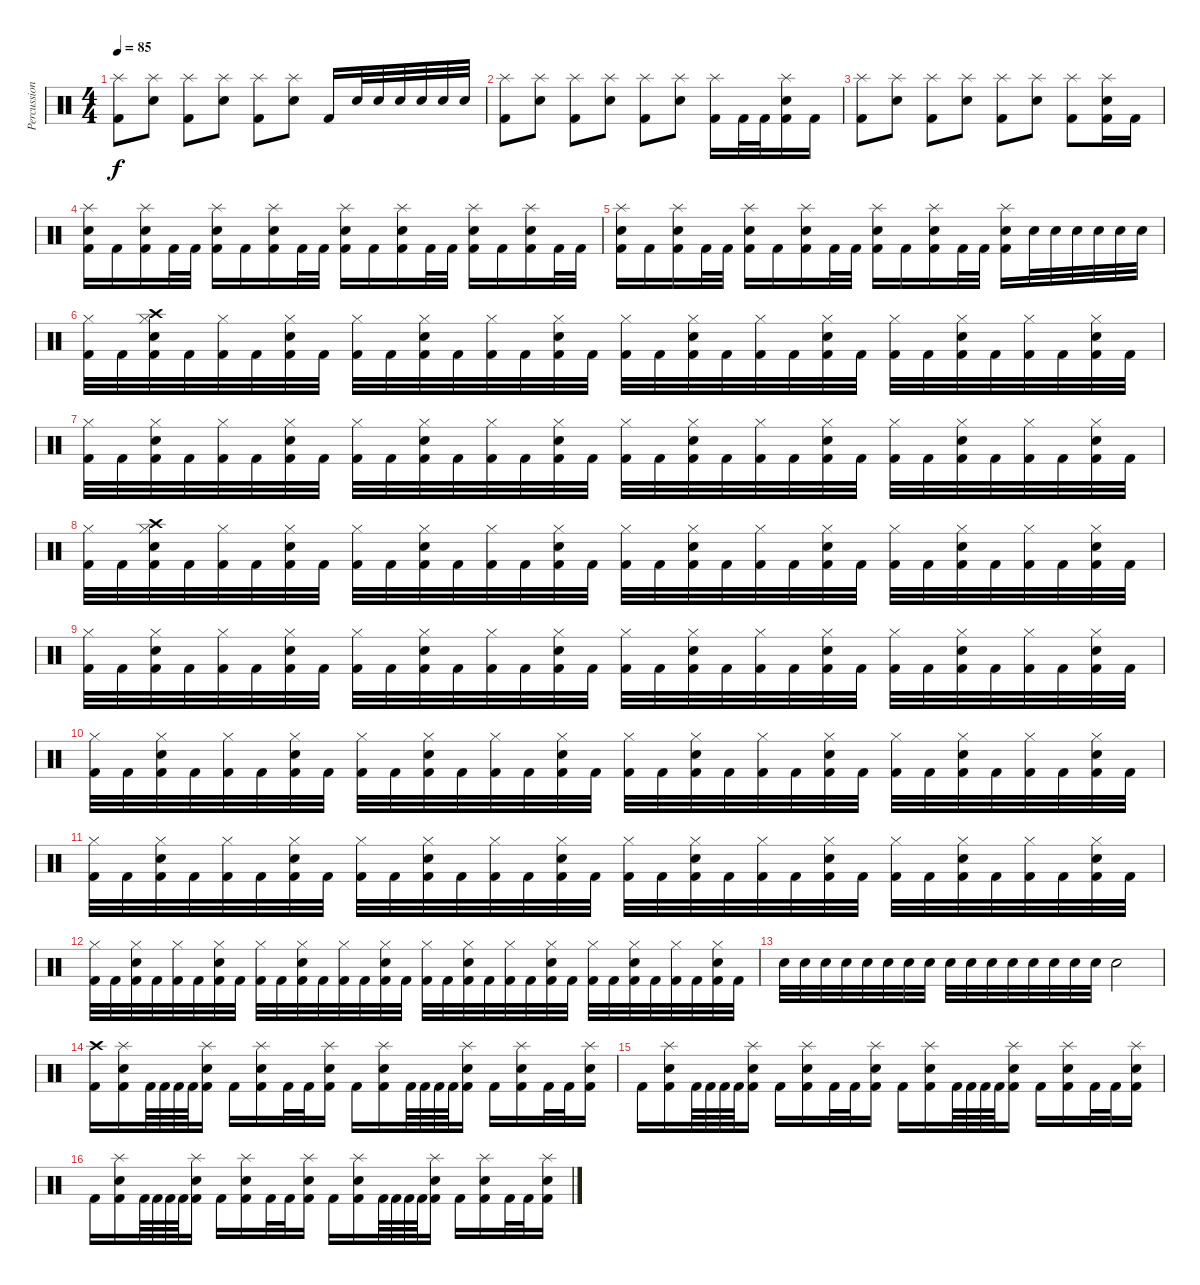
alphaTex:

\track ("Percussion" "Percussion") {instrument percussion}
\staff {score}
\articulation defaults
\ts (4 4)
\tempo 85
\clef neutral
\ks c
("Splash (hit)" "Kick (hit) 2").8{dy f} ("Splash (hit)" "Snare (hit) 2").8 ("Splash (hit)" "Kick (hit) 2").8 ("Splash (hit)" "Snare (hit) 2").8 ("Splash (hit)" "Kick (hit) 2").8 ("Splash (hit)" "Snare (hit) 2").8 "Kick (hit) 2".16 "Snare (hit) 2".32 "Snare (hit) 2".32 "Snare (hit) 2".32 "Snare (hit) 2".32 "Snare (hit) 2".32 "Snare (hit) 2".32 |
("Splash (hit)" "Kick (hit) 2").8 ("Splash (hit)" "Snare (hit) 2").8 ("Splash (hit)" "Kick (hit) 2").8 ("Splash (hit)" "Snare (hit) 2").8 ("Splash (hit)" "Kick (hit) 2").8 ("Splash (hit)" "Snare (hit) 2").8 ("Splash (hit)" "Kick (hit) 2").16 "Kick (hit) 2".32 "Kick (hit) 2".32 ("Splash (hit)" "Snare (hit) 2" "Kick (hit) 2").16 "Kick (hit) 2".16 |
("Splash (hit)" "Kick (hit) 2").8 ("Splash (hit)" "Snare (hit) 2").8 ("Splash (hit)" "Kick (hit) 2").8 ("Splash (hit)" "Snare (hit) 2").8 ("Splash (hit)" "Kick (hit) 2").8 ("Splash (hit)" "Snare (hit) 2").8 ("Splash (hit)" "Kick (hit) 2").8 ("Splash (hit)" "Snare (hit) 2" "Kick (hit) 2").16 "Kick (hit) 2".16 |
("Splash (hit)" "Snare (hit) 2" "Kick (hit) 2").16 "Kick (hit) 2".16 ("Splash (hit)" "Snare (hit) 2" "Kick (hit) 2").16 "Kick (hit) 2".32 "Kick (hit) 2".32 ("Splash (hit)" "Snare (hit) 2" "Kick (hit) 2").16 "Kick (hit) 2".16 ("Splash (hit)" "Snare (hit) 2" "Kick (hit) 2").16 "Kick (hit) 2".32 "Kick (hit) 2".32 ("Splash (hit)" "Snare (hit) 2" "Kick (hit) 2").16 "Kick (hit) 2".16 ("Splash (hit)" "Snare (hit) 2" "Kick (hit) 2").16 "Kick (hit) 2".32 "Kick (hit) 2".32 ("Splash (hit)" "Snare (hit) 2" "Kick (hit) 2").16 "Kick (hit) 2".16 ("Splash (hit)" "Snare (hit) 2" "Kick (hit) 2").16 "Kick (hit) 2".32 "Kick (hit) 2".32 |
("Splash (hit)" "Snare (hit) 2" "Kick (hit) 2").16 "Kick (hit) 2".16 ("Splash (hit)" "Snare (hit) 2" "Kick (hit) 2").16 "Kick (hit) 2".32 "Kick (hit) 2".32 ("Splash (hit)" "Snare (hit) 2" "Kick (hit) 2").16 "Kick (hit) 2".16 ("Splash (hit)" "Snare (hit) 2" "Kick (hit) 2").16 "Kick (hit) 2".32 "Kick (hit) 2".32 ("Splash (hit)" "Snare (hit) 2" "Kick (hit) 2").16 "Kick (hit) 2".16 ("Splash (hit)" "Snare (hit) 2" "Kick (hit) 2").16 "Kick (hit) 2".32 "Kick (hit) 2".32 ("Splash (hit)" "Snare (hit) 2" "Kick (hit) 2").16 "Snare (hit) 2".32 "Snare (hit) 2".32 "Snare (hit) 2".32 "Snare (hit) 2".32 "Snare (hit) 2".32 "Snare (hit) 2".32 |
("Hi-Hat (closed)" "Kick (hit) 2").32 "Kick (hit) 2".32 ("Hi-Hat (closed)" "Snare (hit) 2" "Kick (hit) 2" "Crash high (hit)").32 "Kick (hit) 2".32 ("Hi-Hat (closed)" "Kick (hit) 2").32 "Kick (hit) 2".32 ("Hi-Hat (closed)" "Snare (hit) 2" "Kick (hit) 2").32 "Kick (hit) 2".32 ("Hi-Hat (closed)" "Kick (hit) 2").32 "Kick (hit) 2".32 ("Hi-Hat (closed)" "Snare (hit) 2" "Kick (hit) 2").32 "Kick (hit) 2".32 ("Hi-Hat (closed)" "Kick (hit) 2").32 "Kick (hit) 2".32 ("Hi-Hat (closed)" "Snare (hit) 2" "Kick (hit) 2").32 "Kick (hit) 2".32 ("Hi-Hat (closed)" "Kick (hit) 2").32 "Kick (hit) 2".32 ("Hi-Hat (closed)" "Snare (hit) 2" "Kick (hit) 2").32 "Kick (hit) 2".32 ("Hi-Hat (closed)" "Kick (hit) 2").32 "Kick (hit) 2".32 ("Hi-Hat (closed)" "Snare (hit) 2" "Kick (hit) 2").32 "Kick (hit) 2".32 ("Hi-Hat (closed)" "Kick (hit) 2").32 "Kick (hit) 2".32 ("Hi-Hat (closed)" "Snare (hit) 2" "Kick (hit) 2").32 "Kick (hit) 2".32 ("Hi-Hat (closed)" "Kick (hit) 2").32 "Kick (hit) 2".32 ("Hi-Hat (closed)" "Snare (hit) 2" "Kick (hit) 2").32 "Kick (hit) 2".32 |
("Hi-Hat (closed)" "Kick (hit) 2").32 "Kick (hit) 2".32 ("Hi-Hat (closed)" "Snare (hit) 2" "Kick (hit) 2").32 "Kick (hit) 2".32 ("Hi-Hat (closed)" "Kick (hit) 2").32 "Kick (hit) 2".32 ("Hi-Hat (closed)" "Snare (hit) 2" "Kick (hit) 2").32 "Kick (hit) 2".32 ("Hi-Hat (closed)" "Kick (hit) 2").32 "Kick (hit) 2".32 ("Hi-Hat (closed)" "Snare (hit) 2" "Kick (hit) 2").32 "Kick (hit) 2".32 ("Hi-Hat (closed)" "Kick (hit) 2").32 "Kick (hit) 2".32 ("Hi-Hat (closed)" "Snare (hit) 2" "Kick (hit) 2").32 "Kick (hit) 2".32 ("Hi-Hat (closed)" "Kick (hit) 2").32 "Kick (hit) 2".32 ("Hi-Hat (closed)" "Snare (hit) 2" "Kick (hit) 2").32 "Kick (hit) 2".32 ("Hi-Hat (closed)" "Kick (hit) 2").32 "Kick (hit) 2".32 ("Hi-Hat (closed)" "Snare (hit) 2" "Kick (hit) 2").32 "Kick (hit) 2".32 ("Hi-Hat (closed)" "Kick (hit) 2").32 "Kick (hit) 2".32 ("Hi-Hat (closed)" "Snare (hit) 2" "Kick (hit) 2").32 "Kick (hit) 2".32 ("Hi-Hat (closed)" "Kick (hit) 2").32 "Kick (hit) 2".32 ("Hi-Hat (closed)" "Snare (hit) 2" "Kick (hit) 2").32 "Kick (hit) 2".32 |
("Hi-Hat (closed)" "Kick (hit) 2").32 "Kick (hit) 2".32 ("Hi-Hat (closed)" "Snare (hit) 2" "Kick (hit) 2" "Crash high (hit)").32 "Kick (hit) 2".32 ("Hi-Hat (closed)" "Kick (hit) 2").32 "Kick (hit) 2".32 ("Hi-Hat (closed)" "Snare (hit) 2" "Kick (hit) 2").32 "Kick (hit) 2".32 ("Hi-Hat (closed)" "Kick (hit) 2").32 "Kick (hit) 2".32 ("Hi-Hat (closed)" "Snare (hit) 2" "Kick (hit) 2").32 "Kick (hit) 2".32 ("Hi-Hat (closed)" "Kick (hit) 2").32 "Kick (hit) 2".32 ("Hi-Hat (closed)" "Snare (hit) 2" "Kick (hit) 2").32 "Kick (hit) 2".32 ("Hi-Hat (closed)" "Kick (hit) 2").32 "Kick (hit) 2".32 ("Hi-Hat (closed)" "Snare (hit) 2" "Kick (hit) 2").32 "Kick (hit) 2".32 ("Hi-Hat (closed)" "Kick (hit) 2").32 "Kick (hit) 2".32 ("Hi-Hat (closed)" "Snare (hit) 2" "Kick (hit) 2").32 "Kick (hit) 2".32 ("Hi-Hat (closed)" "Kick (hit) 2").32 "Kick (hit) 2".32 ("Hi-Hat (closed)" "Snare (hit) 2" "Kick (hit) 2").32 "Kick (hit) 2".32 ("Hi-Hat (closed)" "Kick (hit) 2").32 "Kick (hit) 2".32 ("Hi-Hat (closed)" "Snare (hit) 2" "Kick (hit) 2").32 "Kick (hit) 2".32 |
("Hi-Hat (closed)" "Kick (hit) 2").32 "Kick (hit) 2".32 ("Hi-Hat (closed)" "Snare (hit) 2" "Kick (hit) 2").32 "Kick (hit) 2".32 ("Hi-Hat (closed)" "Kick (hit) 2").32 "Kick (hit) 2".32 ("Hi-Hat (closed)" "Snare (hit) 2" "Kick (hit) 2").32 "Kick (hit) 2".32 ("Hi-Hat (closed)" "Kick (hit) 2").32 "Kick (hit) 2".32 ("Hi-Hat (closed)" "Snare (hit) 2" "Kick (hit) 2").32 "Kick (hit) 2".32 ("Hi-Hat (closed)" "Kick (hit) 2").32 "Kick (hit) 2".32 ("Hi-Hat (closed)" "Snare (hit) 2" "Kick (hit) 2").32 "Kick (hit) 2".32 ("Hi-Hat (closed)" "Kick (hit) 2").32 "Kick (hit) 2".32 ("Hi-Hat (closed)" "Snare (hit) 2" "Kick (hit) 2").32 "Kick (hit) 2".32 ("Hi-Hat (closed)" "Kick (hit) 2").32 "Kick (hit) 2".32 ("Hi-Hat (closed)" "Snare (hit) 2" "Kick (hit) 2").32 "Kick (hit) 2".32 ("Hi-Hat (closed)" "Kick (hit) 2").32 "Kick (hit) 2".32 ("Hi-Hat (closed)" "Snare (hit) 2" "Kick (hit) 2").32 "Kick (hit) 2".32 ("Hi-Hat (closed)" "Kick (hit) 2").32 "Kick (hit) 2".32 ("Hi-Hat (closed)" "Snare (hit) 2" "Kick (hit) 2").32 "Kick (hit) 2".32 |
("Hi-Hat (closed)" "Kick (hit) 2").32 "Kick (hit) 2".32 ("Hi-Hat (closed)" "Snare (hit) 2" "Kick (hit) 2").32 "Kick (hit) 2".32 ("Hi-Hat (closed)" "Kick (hit) 2").32 "Kick (hit) 2".32 ("Hi-Hat (closed)" "Snare (hit) 2" "Kick (hit) 2").32 "Kick (hit) 2".32 ("Hi-Hat (closed)" "Kick (hit) 2").32 "Kick (hit) 2".32 ("Hi-Hat (closed)" "Snare (hit) 2" "Kick (hit) 2").32 "Kick (hit) 2".32 ("Hi-Hat (closed)" "Kick (hit) 2").32 "Kick (hit) 2".32 ("Hi-Hat (closed)" "Snare (hit) 2" "Kick (hit) 2").32 "Kick (hit) 2".32 ("Hi-Hat (closed)" "Kick (hit) 2").32 "Kick (hit) 2".32 ("Hi-Hat (closed)" "Snare (hit) 2" "Kick (hit) 2").32 "Kick (hit) 2".32 ("Hi-Hat (closed)" "Kick (hit) 2").32 "Kick (hit) 2".32 ("Hi-Hat (closed)" "Snare (hit) 2" "Kick (hit) 2").32 "Kick (hit) 2".32 ("Hi-Hat (closed)" "Kick (hit) 2").32 "Kick (hit) 2".32 ("Hi-Hat (closed)" "Snare (hit) 2" "Kick (hit) 2").32 "Kick (hit) 2".32 ("Hi-Hat (closed)" "Kick (hit) 2").32 "Kick (hit) 2".32 ("Hi-Hat (closed)" "Snare (hit) 2" "Kick (hit) 2").32 "Kick (hit) 2".32 |
("Hi-Hat (closed)" "Kick (hit) 2").32 "Kick (hit) 2".32 ("Hi-Hat (closed)" "Snare (hit) 2" "Kick (hit) 2").32 "Kick (hit) 2".32 ("Hi-Hat (closed)" "Kick (hit) 2").32 "Kick (hit) 2".32 ("Hi-Hat (closed)" "Snare (hit) 2" "Kick (hit) 2").32 "Kick (hit) 2".32 ("Hi-Hat (closed)" "Kick (hit) 2").32 "Kick (hit) 2".32 ("Hi-Hat (closed)" "Snare (hit) 2" "Kick (hit) 2").32 "Kick (hit) 2".32 ("Hi-Hat (closed)" "Kick (hit) 2").32 "Kick (hit) 2".32 ("Hi-Hat (closed)" "Snare (hit) 2" "Kick (hit) 2").32 "Kick (hit) 2".32 ("Hi-Hat (closed)" "Kick (hit) 2").32 "Kick (hit) 2".32 ("Hi-Hat (closed)" "Snare (hit) 2" "Kick (hit) 2").32 "Kick (hit) 2".32 ("Hi-Hat (closed)" "Kick (hit) 2").32 "Kick (hit) 2".32 ("Hi-Hat (closed)" "Snare (hit) 2" "Kick (hit) 2").32 "Kick (hit) 2".32 ("Hi-Hat (closed)" "Kick (hit) 2").32 "Kick (hit) 2".32 ("Hi-Hat (closed)" "Snare (hit) 2" "Kick (hit) 2").32 "Kick (hit) 2".32 ("Hi-Hat (closed)" "Kick (hit) 2").32 "Kick (hit) 2".32 ("Hi-Hat (closed)" "Snare (hit) 2" "Kick (hit) 2").32 "Kick (hit) 2".32 |
("Hi-Hat (closed)" "Kick (hit) 2").32 "Kick (hit) 2".32 ("Hi-Hat (closed)" "Snare (hit) 2" "Kick (hit) 2").32 "Kick (hit) 2".32 ("Hi-Hat (closed)" "Kick (hit) 2").32 "Kick (hit) 2".32 ("Hi-Hat (closed)" "Snare (hit) 2" "Kick (hit) 2").32 "Kick (hit) 2".32 ("Hi-Hat (closed)" "Kick (hit) 2").32 "Kick (hit) 2".32 ("Hi-Hat (closed)" "Snare (hit) 2" "Kick (hit) 2").32 "Kick (hit) 2".32 ("Hi-Hat (closed)" "Kick (hit) 2").32 "Kick (hit) 2".32 ("Hi-Hat (closed)" "Snare (hit) 2" "Kick (hit) 2").32 "Kick (hit) 2".32 ("Hi-Hat (closed)" "Kick (hit) 2").32 "Kick (hit) 2".32 ("Hi-Hat (closed)" "Snare (hit) 2" "Kick (hit) 2").32 "Kick (hit) 2".32 ("Hi-Hat (closed)" "Kick (hit) 2").32 "Kick (hit) 2".32 ("Hi-Hat (closed)" "Snare (hit) 2" "Kick (hit) 2").32 "Kick (hit) 2".32 ("Hi-Hat (closed)" "Kick (hit) 2").32 "Kick (hit) 2".32 ("Hi-Hat (closed)" "Snare (hit) 2" "Kick (hit) 2").32 "Kick (hit) 2".32 ("Hi-Hat (closed)" "Kick (hit) 2").32 "Kick (hit) 2".32 ("Hi-Hat (closed)" "Snare (hit) 2" "Kick (hit) 2").32 "Kick (hit) 2".32 |
"Snare (hit) 2".32 "Snare (hit) 2".32 "Snare (hit) 2".32 "Snare (hit) 2".32 "Snare (hit) 2".32 "Snare (hit) 2".32 "Snare (hit) 2".32 "Snare (hit) 2".32 "Snare (hit) 2".32 "Snare (hit) 2".32 "Snare (hit) 2".32 "Snare (hit) 2".32 "Snare (hit) 2".32 "Snare (hit) 2".32 "Snare (hit) 2".32 "Snare (hit) 2".32 "Snare (hit) 2".2 |
("Crash high (hit)" "Kick (hit) 2").16 ("Snare (hit) 2" "Splash (hit)" "Kick (hit) 2").16 "Kick (hit) 2".64 "Kick (hit) 2".64 "Kick (hit) 2".64 "Kick (hit) 2".64 ("Snare (hit) 2" "Splash (hit)" "Kick (hit) 2").16 "Kick (hit) 2".16 ("Snare (hit) 2" "Splash (hit)" "Kick (hit) 2").16 "Kick (hit) 2".32 "Kick (hit) 2".32 ("Snare (hit) 2" "Splash (hit)" "Kick (hit) 2").16 "Kick (hit) 2".16 ("Snare (hit) 2" "Splash (hit)" "Kick (hit) 2").16 "Kick (hit) 2".64 "Kick (hit) 2".64 "Kick (hit) 2".64 "Kick (hit) 2".64 ("Snare (hit) 2" "Splash (hit)" "Kick (hit) 2").16 "Kick (hit) 2".16 ("Snare (hit) 2" "Splash (hit)" "Kick (hit) 2").16 "Kick (hit) 2".32 "Kick (hit) 2".32 ("Snare (hit) 2" "Splash (hit)" "Kick (hit) 2").16 |
"Kick (hit) 2".16 ("Snare (hit) 2" "Splash (hit)" "Kick (hit) 2").16 "Kick (hit) 2".64 "Kick (hit) 2".64 "Kick (hit) 2".64 "Kick (hit) 2".64 ("Snare (hit) 2" "Splash (hit)" "Kick (hit) 2").16 "Kick (hit) 2".16 ("Snare (hit) 2" "Splash (hit)" "Kick (hit) 2").16 "Kick (hit) 2".32 "Kick (hit) 2".32 ("Snare (hit) 2" "Splash (hit)" "Kick (hit) 2").16 "Kick (hit) 2".16 ("Snare (hit) 2" "Splash (hit)" "Kick (hit) 2").16 "Kick (hit) 2".64 "Kick (hit) 2".64 "Kick (hit) 2".64 "Kick (hit) 2".64 ("Snare (hit) 2" "Splash (hit)" "Kick (hit) 2").16 "Kick (hit) 2".16 ("Snare (hit) 2" "Splash (hit)" "Kick (hit) 2").16 "Kick (hit) 2".32 "Kick (hit) 2".32 ("Snare (hit) 2" "Splash (hit)" "Kick (hit) 2").16 |
"Kick (hit) 2".16 ("Snare (hit) 2" "Splash (hit)" "Kick (hit) 2").16 "Kick (hit) 2".64 "Kick (hit) 2".64 "Kick (hit) 2".64 "Kick (hit) 2".64 ("Snare (hit) 2" "Splash (hit)" "Kick (hit) 2").16 "Kick (hit) 2".16 ("Snare (hit) 2" "Splash (hit)" "Kick (hit) 2").16 "Kick (hit) 2".32 "Kick (hit) 2".32 ("Snare (hit) 2" "Splash (hit)" "Kick (hit) 2").16 "Kick (hit) 2".16 ("Snare (hit) 2" "Splash (hit)" "Kick (hit) 2").16 "Kick (hit) 2".64 "Kick (hit) 2".64 "Kick (hit) 2".64 "Kick (hit) 2".64 ("Snare (hit) 2" "Splash (hit)" "Kick (hit) 2").16 "Kick (hit) 2".16 ("Snare (hit) 2" "Splash (hit)" "Kick (hit) 2").16 "Kick (hit) 2".32 "Kick (hit) 2".32 ("Snare (hit) 2" "Splash (hit)" "Kick (hit) 2").16
